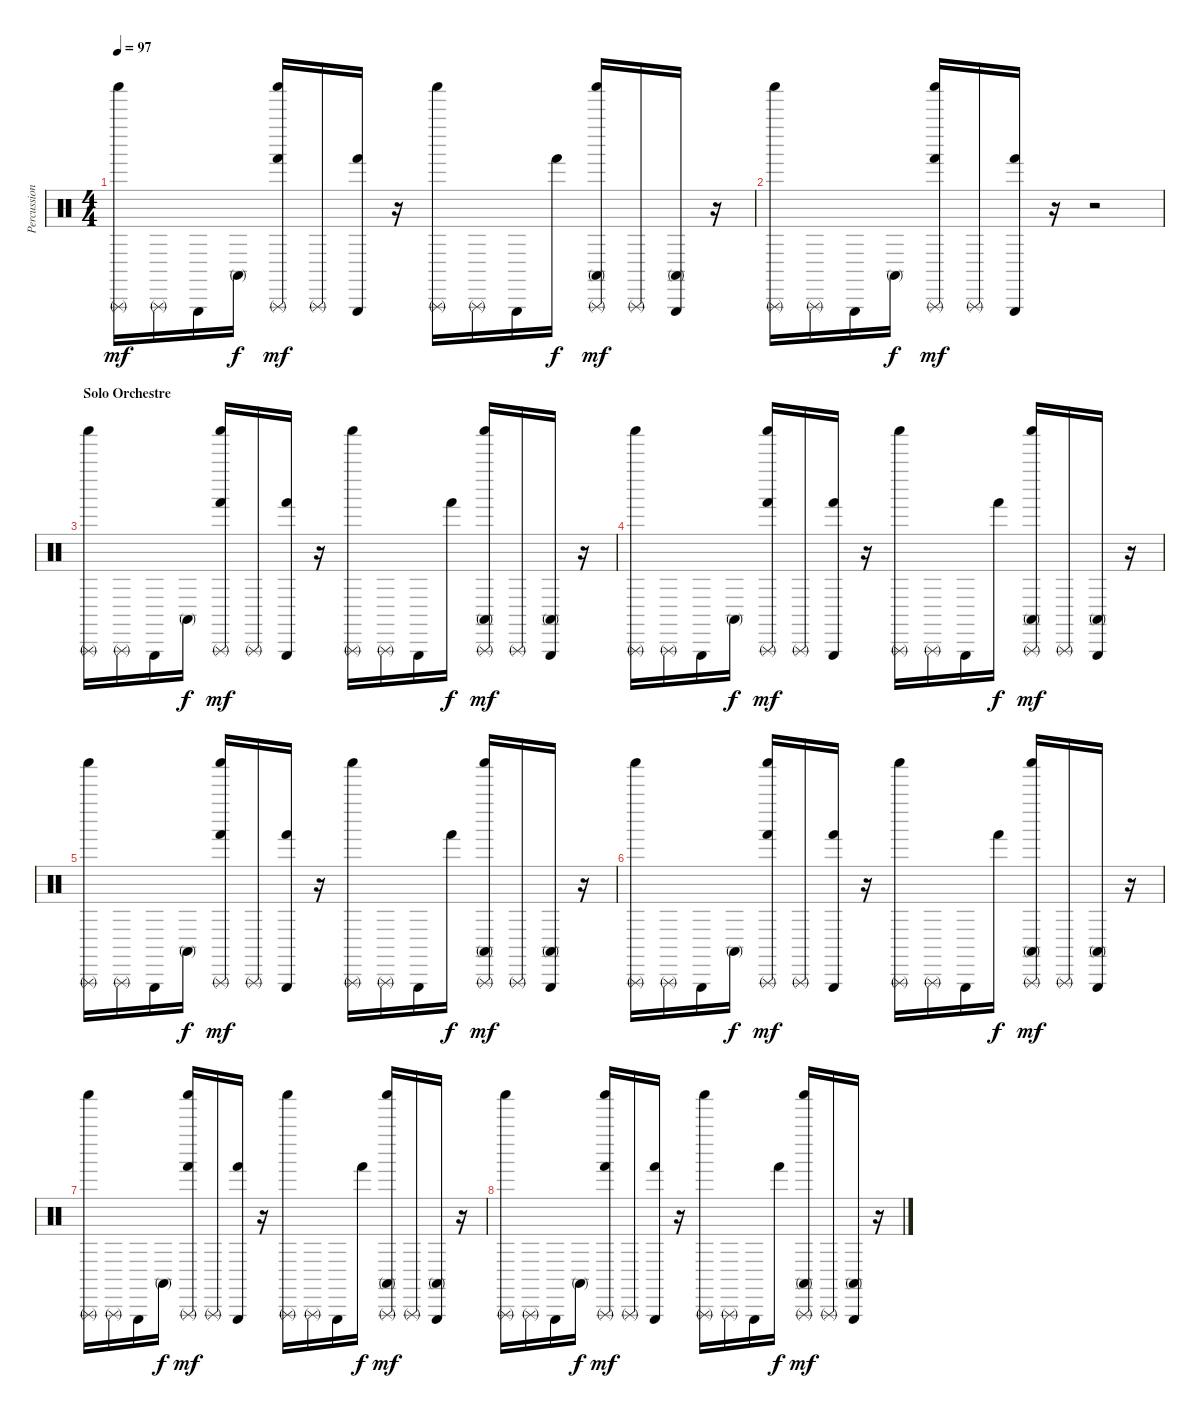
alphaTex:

\track ("Percussions" "Percussion") {instrument percussion}
\staff {score}
\articulation defaults
\ts (4 4)
\tempo 97
\clef neutral
\ks c
("Triangle (rnute)" "Shaker (hit)").16{dy mf} "Triangle (rnute)".16 "Triangle (hit)".16 "Conga high (mute)".16{dy f} ("Triangle (rnute)" "Shaker (hit)" "Hand (hit)").16{dy mf} "Triangle (rnute)".16 ("Triangle (hit)" "Hand (hit)").16 r.16 ("Triangle (rnute)" "Shaker (hit)").16 "Triangle (rnute)".16 "Triangle (hit)".16 "Hand (hit)".16{dy f} ("Triangle (rnute)" "Shaker (hit)" "Conga high (mute)").16{dy mf} "Triangle (rnute)".16 ("Triangle (hit)" "Conga high (mute)").16 r.16 |
("Triangle (rnute)" "Shaker (hit)").16 "Triangle (rnute)".16 "Triangle (hit)".16 "Conga high (mute)".16{dy f} ("Triangle (rnute)" "Shaker (hit)" "Hand (hit)").16{dy mf} "Triangle (rnute)".16 ("Triangle (hit)" "Hand (hit)").16 r.16 r.2 |
\section ("" "Solo Orchestre")
("Triangle (rnute)" "Shaker (hit)").16 "Triangle (rnute)".16 "Triangle (hit)".16 "Conga high (mute)".16{dy f} ("Triangle (rnute)" "Shaker (hit)" "Hand (hit)").16{dy mf} "Triangle (rnute)".16 ("Triangle (hit)" "Hand (hit)").16 r.16 ("Triangle (rnute)" "Shaker (hit)").16 "Triangle (rnute)".16 "Triangle (hit)".16 "Hand (hit)".16{dy f} ("Triangle (rnute)" "Shaker (hit)" "Conga high (mute)").16{dy mf} "Triangle (rnute)".16 ("Triangle (hit)" "Conga high (mute)").16 r.16 |
("Triangle (rnute)" "Shaker (hit)").16 "Triangle (rnute)".16 "Triangle (hit)".16 "Conga high (mute)".16{dy f} ("Triangle (rnute)" "Shaker (hit)" "Hand (hit)").16{dy mf} "Triangle (rnute)".16 ("Triangle (hit)" "Hand (hit)").16 r.16 ("Triangle (rnute)" "Shaker (hit)").16 "Triangle (rnute)".16 "Triangle (hit)".16 "Hand (hit)".16{dy f} ("Triangle (rnute)" "Shaker (hit)" "Conga high (mute)").16{dy mf} "Triangle (rnute)".16 ("Triangle (hit)" "Conga high (mute)").16 r.16 |
("Triangle (rnute)" "Shaker (hit)").16 "Triangle (rnute)".16 "Triangle (hit)".16 "Conga high (mute)".16{dy f} ("Triangle (rnute)" "Shaker (hit)" "Hand (hit)").16{dy mf} "Triangle (rnute)".16 ("Triangle (hit)" "Hand (hit)").16 r.16 ("Triangle (rnute)" "Shaker (hit)").16 "Triangle (rnute)".16 "Triangle (hit)".16 "Hand (hit)".16{dy f} ("Triangle (rnute)" "Shaker (hit)" "Conga high (mute)").16{dy mf} "Triangle (rnute)".16 ("Triangle (hit)" "Conga high (mute)").16 r.16 |
("Triangle (rnute)" "Shaker (hit)").16 "Triangle (rnute)".16 "Triangle (hit)".16 "Conga high (mute)".16{dy f} ("Triangle (rnute)" "Shaker (hit)" "Hand (hit)").16{dy mf} "Triangle (rnute)".16 ("Triangle (hit)" "Hand (hit)").16 r.16 ("Triangle (rnute)" "Shaker (hit)").16 "Triangle (rnute)".16 "Triangle (hit)".16 "Hand (hit)".16{dy f} ("Triangle (rnute)" "Shaker (hit)" "Conga high (mute)").16{dy mf} "Triangle (rnute)".16 ("Triangle (hit)" "Conga high (mute)").16 r.16 |
("Triangle (rnute)" "Shaker (hit)").16 "Triangle (rnute)".16 "Triangle (hit)".16 "Conga high (mute)".16{dy f} ("Triangle (rnute)" "Shaker (hit)" "Hand (hit)").16{dy mf} "Triangle (rnute)".16 ("Triangle (hit)" "Hand (hit)").16 r.16 ("Triangle (rnute)" "Shaker (hit)").16 "Triangle (rnute)".16 "Triangle (hit)".16 "Hand (hit)".16{dy f} ("Triangle (rnute)" "Shaker (hit)" "Conga high (mute)").16{dy mf} "Triangle (rnute)".16 ("Triangle (hit)" "Conga high (mute)").16 r.16 |
("Triangle (rnute)" "Shaker (hit)").16 "Triangle (rnute)".16 "Triangle (hit)".16 "Conga high (mute)".16{dy f} ("Triangle (rnute)" "Shaker (hit)" "Hand (hit)").16{dy mf} "Triangle (rnute)".16 ("Triangle (hit)" "Hand (hit)").16 r.16 ("Triangle (rnute)" "Shaker (hit)").16 "Triangle (rnute)".16 "Triangle (hit)".16 "Hand (hit)".16{dy f} ("Triangle (rnute)" "Shaker (hit)" "Conga high (mute)").16{dy mf} "Triangle (rnute)".16 ("Triangle (hit)" "Conga high (mute)").16 r.16
